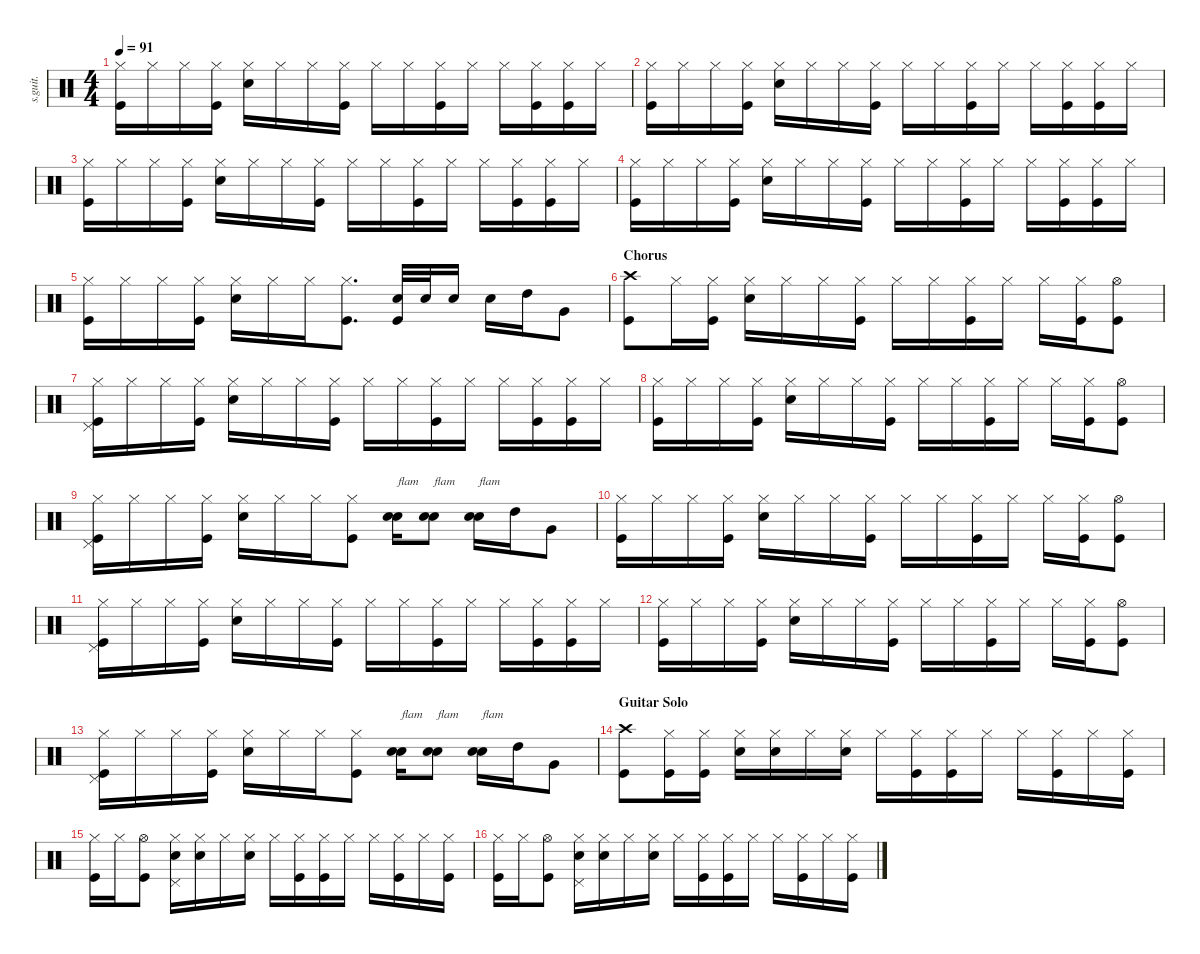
\defaultSystemsLayout 4
\hideDynamics
\bracketExtendMode nobrackets
\track ("Chad" "s.guit.") {instrument percussion}
\staff {score}
\articulation defaults
\ts (4 4)
\tempo 91
\clef neutral
\ks c
("Hi-Hat (closed)" "Kick (hit)").16{dy f} "Hi-Hat (closed)".16 "Hi-Hat (closed)".16 ("Hi-Hat (closed)" "Kick (hit)").16 ("Hi-Hat (closed)" "Snare (hit) 2").16 "Hi-Hat (closed)".16 "Hi-Hat (closed)".16 ("Hi-Hat (closed)" "Kick (hit)").16 "Hi-Hat (closed)".16 "Hi-Hat (closed)".16 ("Hi-Hat (closed)" "Kick (hit)").16 "Hi-Hat (closed)".16 "Hi-Hat (closed)".16 ("Hi-Hat (closed)" "Kick (hit)").16 ("Hi-Hat (closed)" "Kick (hit)").16 "Hi-Hat (closed)".16 |
("Hi-Hat (closed)" "Kick (hit)").16 "Hi-Hat (closed)".16 "Hi-Hat (closed)".16 ("Hi-Hat (closed)" "Kick (hit)").16 ("Hi-Hat (closed)" "Snare (hit) 2").16 "Hi-Hat (closed)".16 "Hi-Hat (closed)".16 ("Hi-Hat (closed)" "Kick (hit)").16 "Hi-Hat (closed)".16 "Hi-Hat (closed)".16 ("Hi-Hat (closed)" "Kick (hit)").16 "Hi-Hat (closed)".16 "Hi-Hat (closed)".16 ("Hi-Hat (closed)" "Kick (hit)").16 ("Hi-Hat (closed)" "Kick (hit)").16 "Hi-Hat (closed)".16 |
("Hi-Hat (closed)" "Kick (hit)").16 "Hi-Hat (closed)".16 "Hi-Hat (closed)".16 ("Hi-Hat (closed)" "Kick (hit)").16 ("Hi-Hat (closed)" "Snare (hit) 2").16 "Hi-Hat (closed)".16 "Hi-Hat (closed)".16 ("Hi-Hat (closed)" "Kick (hit)").16 "Hi-Hat (closed)".16 "Hi-Hat (closed)".16 ("Hi-Hat (closed)" "Kick (hit)").16 "Hi-Hat (closed)".16 "Hi-Hat (closed)".16 ("Hi-Hat (closed)" "Kick (hit)").16 ("Hi-Hat (closed)" "Kick (hit)").16 "Hi-Hat (closed)".16 |
("Hi-Hat (closed)" "Kick (hit)").16 "Hi-Hat (closed)".16 "Hi-Hat (closed)".16 ("Hi-Hat (closed)" "Kick (hit)").16 ("Hi-Hat (closed)" "Snare (hit) 2").16 "Hi-Hat (closed)".16 "Hi-Hat (closed)".16 ("Hi-Hat (closed)" "Kick (hit)").16 "Hi-Hat (closed)".16 "Hi-Hat (closed)".16 ("Hi-Hat (closed)" "Kick (hit)").16 "Hi-Hat (closed)".16 "Hi-Hat (closed)".16 ("Hi-Hat (closed)" "Kick (hit)").16 ("Hi-Hat (closed)" "Kick (hit)").16 "Hi-Hat (closed)".16 |
("Hi-Hat (closed)" "Kick (hit)").16 "Hi-Hat (closed)".16 "Hi-Hat (closed)".16 ("Hi-Hat (closed)" "Kick (hit)").16 ("Hi-Hat (closed)" "Snare (hit) 2").16 "Hi-Hat (closed)".16 "Hi-Hat (closed)".16 ("Hi-Hat (closed)" "Kick (hit)").8{d} ("Snare (hit) 2" "Kick (hit)").32 "Snare (hit) 2".32 "Snare (hit) 2".16 "Snare (hit) 2".16 "High Tom (hit)".16 "Very Low Tom (hit)".8 |
\section ("" "Chorus")
("Crash high (hit)" "Kick (hit)").8 "Hi-Hat (closed)".16 ("Hi-Hat (closed)" "Kick (hit)").16 ("Hi-Hat (closed)" "Snare (hit) 2").16 "Hi-Hat (closed)".16 "Hi-Hat (closed)".16 ("Hi-Hat (closed)" "Kick (hit)").16 "Hi-Hat (closed)".16 "Hi-Hat (closed)".16 ("Hi-Hat (closed)" "Kick (hit)").16 "Hi-Hat (closed)".16 "Hi-Hat (closed)".16 ("Hi-Hat (closed)" "Kick (hit)").16 ("Hi-Hat (open)" "Kick (hit)").8 |
("Hi-Hat (closed)" "Kick (hit)" "Pedal Hi-Hat (hit)").16 "Hi-Hat (closed)".16 "Hi-Hat (closed)".16 ("Hi-Hat (closed)" "Kick (hit)").16 ("Hi-Hat (closed)" "Snare (hit) 2").16 "Hi-Hat (closed)".16 "Hi-Hat (closed)".16 ("Hi-Hat (closed)" "Kick (hit)").16 "Hi-Hat (closed)".16 "Hi-Hat (closed)".16 ("Hi-Hat (closed)" "Kick (hit)").16 "Hi-Hat (closed)".16 "Hi-Hat (closed)".16 ("Hi-Hat (closed)" "Kick (hit)").16 ("Hi-Hat (closed)" "Kick (hit)").16 "Hi-Hat (closed)".16 |
("Hi-Hat (closed)" "Kick (hit)").16 "Hi-Hat (closed)".16 "Hi-Hat (closed)".16 ("Hi-Hat (closed)" "Kick (hit)").16 ("Hi-Hat (closed)" "Snare (hit) 2").16 "Hi-Hat (closed)".16 "Hi-Hat (closed)".16 ("Hi-Hat (closed)" "Kick (hit)").16 "Hi-Hat (closed)".16 "Hi-Hat (closed)".16 ("Hi-Hat (closed)" "Kick (hit)").16 "Hi-Hat (closed)".16 "Hi-Hat (closed)".16 ("Hi-Hat (closed)" "Kick (hit)").16 ("Hi-Hat (open)" "Kick (hit)").8 |
("Hi-Hat (closed)" "Kick (hit)" "Pedal Hi-Hat (hit)").16 "Hi-Hat (closed)".16 "Hi-Hat (closed)".16 ("Hi-Hat (closed)" "Kick (hit)").16 ("Hi-Hat (closed)" "Snare (hit) 2").16 "Hi-Hat (closed)".16 "Hi-Hat (closed)".16 ("Hi-Hat (closed)" "Kick (hit)").8 ("Snare (hit) 2" "Snare (hit) 2").16{txt "flam"} ("Snare (hit) 2" "Snare (hit) 2").8{txt "flam"} ("Snare (hit) 2" "Snare (hit) 2").16{txt "flam"} "High Tom (hit)".16 "Very Low Tom (hit)".8 |
("Hi-Hat (closed)" "Kick (hit)").16 "Hi-Hat (closed)".16 "Hi-Hat (closed)".16 ("Hi-Hat (closed)" "Kick (hit)").16 ("Hi-Hat (closed)" "Snare (hit) 2").16 "Hi-Hat (closed)".16 "Hi-Hat (closed)".16 ("Hi-Hat (closed)" "Kick (hit)").16 "Hi-Hat (closed)".16 "Hi-Hat (closed)".16 ("Hi-Hat (closed)" "Kick (hit)").16 "Hi-Hat (closed)".16 "Hi-Hat (closed)".16 ("Hi-Hat (closed)" "Kick (hit)").16 ("Hi-Hat (open)" "Kick (hit)").8 |
("Hi-Hat (closed)" "Kick (hit)" "Pedal Hi-Hat (hit)").16 "Hi-Hat (closed)".16 "Hi-Hat (closed)".16 ("Hi-Hat (closed)" "Kick (hit)").16 ("Hi-Hat (closed)" "Snare (hit) 2").16 "Hi-Hat (closed)".16 "Hi-Hat (closed)".16 ("Hi-Hat (closed)" "Kick (hit)").16 "Hi-Hat (closed)".16 "Hi-Hat (closed)".16 ("Hi-Hat (closed)" "Kick (hit)").16 "Hi-Hat (closed)".16 "Hi-Hat (closed)".16 ("Hi-Hat (closed)" "Kick (hit)").16 ("Hi-Hat (closed)" "Kick (hit)").16 "Hi-Hat (closed)".16 |
("Hi-Hat (closed)" "Kick (hit)").16 "Hi-Hat (closed)".16 "Hi-Hat (closed)".16 ("Hi-Hat (closed)" "Kick (hit)").16 ("Hi-Hat (closed)" "Snare (hit) 2").16 "Hi-Hat (closed)".16 "Hi-Hat (closed)".16 ("Hi-Hat (closed)" "Kick (hit)").16 "Hi-Hat (closed)".16 "Hi-Hat (closed)".16 ("Hi-Hat (closed)" "Kick (hit)").16 "Hi-Hat (closed)".16 "Hi-Hat (closed)".16 ("Hi-Hat (closed)" "Kick (hit)").16 ("Hi-Hat (open)" "Kick (hit)").8 |
("Hi-Hat (closed)" "Kick (hit)" "Pedal Hi-Hat (hit)").16 "Hi-Hat (closed)".16 "Hi-Hat (closed)".16 ("Hi-Hat (closed)" "Kick (hit)").16 ("Hi-Hat (closed)" "Snare (hit) 2").16 "Hi-Hat (closed)".16 "Hi-Hat (closed)".16 ("Hi-Hat (closed)" "Kick (hit)").8 ("Snare (hit) 2" "Snare (hit) 2").16{txt "flam"} ("Snare (hit) 2" "Snare (hit) 2").8{txt "flam"} ("Snare (hit) 2" "Snare (hit) 2").16{txt "flam"} "High Tom (hit)".16 "Very Low Tom (hit)".8 |
\section ("" "Guitar Solo")
("Crash high (hit)" "Kick (hit)").8 ("Hi-Hat (closed)" "Kick (hit)").16 ("Hi-Hat (closed)" "Kick (hit)").16 ("Hi-Hat (closed)" "Snare (hit) 2").16 ("Hi-Hat (closed)" "Snare (hit) 2").16 "Hi-Hat (closed)".16 ("Hi-Hat (closed)" "Snare (hit) 2").16 "Hi-Hat (closed)".16 ("Hi-Hat (closed)" "Kick (hit)").16 ("Hi-Hat (closed)" "Kick (hit)").16 "Hi-Hat (closed)".16 "Hi-Hat (closed)".16 ("Hi-Hat (closed)" "Kick (hit)").16 "Hi-Hat (closed)".16 ("Hi-Hat (closed)" "Kick (hit)").16 |
("Hi-Hat (closed)" "Kick (hit)").16 "Hi-Hat (closed)".16 ("Hi-Hat (open)" "Kick (hit)").8 ("Hi-Hat (closed)" "Snare (hit) 2" "Pedal Hi-Hat (hit)").16 ("Hi-Hat (closed)" "Snare (hit) 2").16 "Hi-Hat (closed)".16 ("Hi-Hat (closed)" "Snare (hit) 2").16 "Hi-Hat (closed)".16 ("Hi-Hat (closed)" "Kick (hit)").16 ("Hi-Hat (closed)" "Kick (hit)").16 "Hi-Hat (closed)".16 "Hi-Hat (closed)".16 ("Hi-Hat (closed)" "Kick (hit)").16 "Hi-Hat (closed)".16 ("Hi-Hat (closed)" "Kick (hit)").16 |
("Hi-Hat (closed)" "Kick (hit)").16 "Hi-Hat (closed)".16 ("Hi-Hat (open)" "Kick (hit)").8 ("Hi-Hat (closed)" "Snare (hit) 2" "Pedal Hi-Hat (hit)").16 ("Hi-Hat (closed)" "Snare (hit) 2").16 "Hi-Hat (closed)".16 ("Hi-Hat (closed)" "Snare (hit) 2").16 "Hi-Hat (closed)".16 ("Hi-Hat (closed)" "Kick (hit)").16 ("Hi-Hat (closed)" "Kick (hit)").16 "Hi-Hat (closed)".16 "Hi-Hat (closed)".16 ("Hi-Hat (closed)" "Kick (hit)").16 "Hi-Hat (closed)".16 ("Hi-Hat (closed)" "Kick (hit)").16
